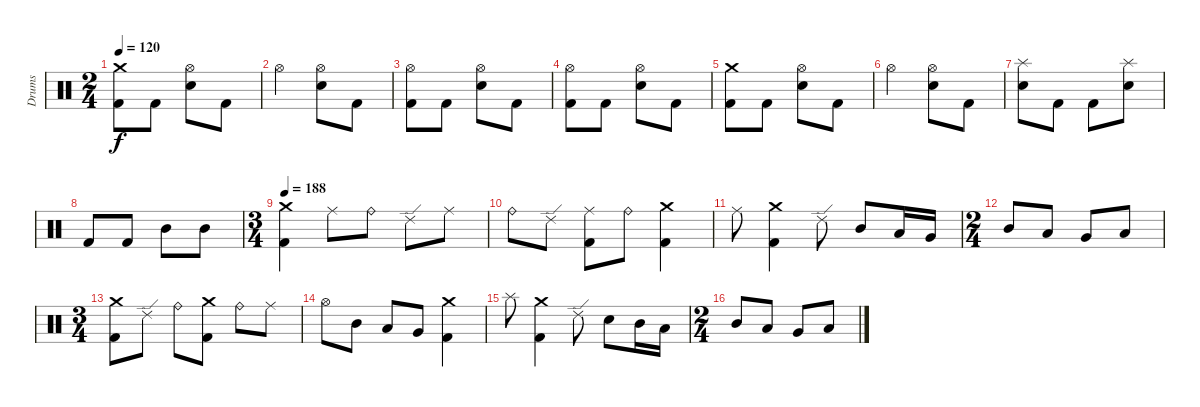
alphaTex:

\track ("Drums" "Drums") {instrument percussion}
\staff {score}
\articulation defaults
\ts (2 4)
\tempo 120
\clef neutral
\ks c
("Crash medium (hit)" "Kick (hit) 2").8{dy f} "Kick (hit) 2".8 ("Electric Snare (hit)" "Hi-Hat (open)").8 "Kick (hit) 2".8 |
"Hi-Hat (open)".4 ("Electric Snare (hit)" "Hi-Hat (open)").8 "Kick (hit) 2".8 |
("Hi-Hat (open)" "Kick (hit) 2").8 "Kick (hit) 2".8 ("Electric Snare (hit)" "Hi-Hat (open)").8 "Kick (hit) 2".8 |
("Hi-Hat (open)" "Kick (hit) 2").8 "Kick (hit) 2".8 ("Electric Snare (hit)" "Hi-Hat (open)").8 "Kick (hit) 2".8 |
("Crash medium (hit)" "Kick (hit) 2").8 "Kick (hit) 2".8 ("Electric Snare (hit)" "Hi-Hat (open)").8 "Kick (hit) 2".8 |
"Hi-Hat (open)".4 ("Electric Snare (hit)" "Hi-Hat (open)").8 "Kick (hit) 2".8 |
("Electric Snare (hit)" "Splash (hit)").8 "Kick (hit) 2".8 "Kick (hit) 2".8 ("Electric Snare (hit)" "Splash (hit)").8 |
"Kick (hit) 2".8 "Kick (hit) 2".8 "Mid Tom (hit)".8 "Mid Tom (hit)".8 |
\ts (3 4)
\tempo 188
("Crash medium (hit)" "Kick (hit) 2").4 "Ride (middle)".8 "Ride (bell)".8 "Ride (edge) 2".8 "Ride (middle)".8 |
"Ride (bell)".8 "Ride (edge) 2".8 ("Ride (middle)" "Kick (hit) 2").8 "Ride (bell)".8 ("Crash medium (hit)" "Kick (hit) 2").4 |
"Ride (middle)".8 ("Crash medium (hit)" "Kick (hit) 2").4 "Ride (edge) 2".8 "Mid Tom (hit)".8 "Low Tom (hit)".16 "Very Low Tom (hit)".16 |
\ts (2 4)
"Mid Tom (hit)".8 "Low Tom (hit)".8 "Very Low Tom (hit)".8 "Low Floor Tom (hit)".8 |
\ts (3 4)
("Crash medium (hit)" "Kick (hit) 2").8 "Ride (edge) 2".8 "Ride (bell)".8 ("Crash medium (hit)" "Kick (hit) 2").8 "Ride (bell)".8 "Ride (middle)".8 |
"Hi-Hat (open)".8 "Mid Tom (hit)".8 "Low Tom (hit)".8 "Very Low Tom (hit)".8 ("Crash medium (hit)" "Kick (hit) 2").4 |
"Splash (hit)".8 ("Crash medium (hit)" "Kick (hit) 2").4 "Ride (edge) 2".8 "Electric Snare (hit)".8 "Mid Tom (hit)".16 "Low Tom (hit)".16 |
\ts (2 4)
"Mid Tom (hit)".8 "Low Tom (hit)".8 "Very Low Tom (hit)".8 "Low Floor Tom (hit)".8
